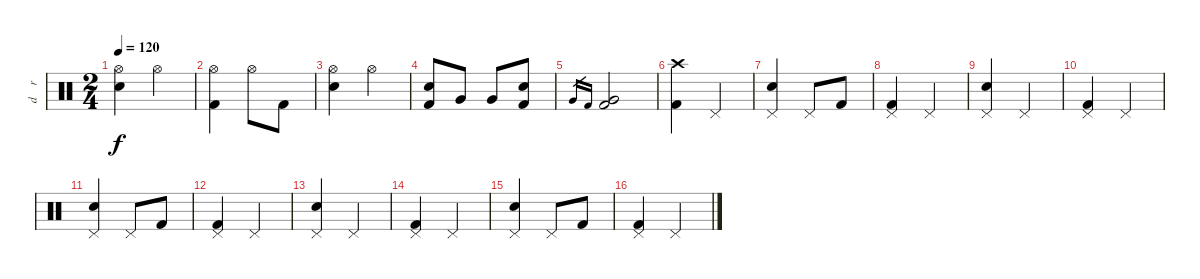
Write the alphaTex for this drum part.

\track ("d    r     u    m    s" "d    r    ") {instrument percussion}
\staff {score}
\articulation defaults
\ts (2 4)
\tempo 120
\clef neutral
\ks c
("Hi-Hat (open)" "Snare (hit) 2").4{dy f} "Hi-Hat (open)".4 |
("Hi-Hat (open)" "Kick (hit) 2").4 "Hi-Hat (open)".8 "Kick (hit) 2".8 |
("Hi-Hat (open)" "Snare (hit) 2").4 "Hi-Hat (open)".4 |
("Snare (hit) 2" "Kick (hit) 2").8 "Very Low Tom (hit)".8 "Very Low Tom (hit)".8 ("Snare (hit) 2" "Kick (hit) 2").8 |
"Very Low Tom (hit)".16{gr} "Kick (hit) 2".16{gr} ("Very Low Tom (hit)" "Kick (hit) 2").2 |
("Crash high (hit)" "Kick (hit) 2").4 "Pedal Hi-Hat (hit)".4 |
("Pedal Hi-Hat (hit)" "Snare (hit) 2").4 "Pedal Hi-Hat (hit)".8 "Kick (hit) 2".8 |
("Pedal Hi-Hat (hit)" "Kick (hit) 2").4 "Pedal Hi-Hat (hit)".4 |
("Pedal Hi-Hat (hit)" "Snare (hit) 2").4 "Pedal Hi-Hat (hit)".4 |
("Pedal Hi-Hat (hit)" "Kick (hit) 2").4 "Pedal Hi-Hat (hit)".4 |
("Pedal Hi-Hat (hit)" "Snare (hit) 2").4 "Pedal Hi-Hat (hit)".8 "Kick (hit) 2".8 |
("Pedal Hi-Hat (hit)" "Kick (hit) 2").4 "Pedal Hi-Hat (hit)".4 |
("Pedal Hi-Hat (hit)" "Snare (hit) 2").4 "Pedal Hi-Hat (hit)".4 |
("Pedal Hi-Hat (hit)" "Kick (hit) 2").4 "Pedal Hi-Hat (hit)".4 |
("Pedal Hi-Hat (hit)" "Snare (hit) 2").4 "Pedal Hi-Hat (hit)".8 "Kick (hit) 2".8 |
("Pedal Hi-Hat (hit)" "Kick (hit) 2").4 "Pedal Hi-Hat (hit)".4
